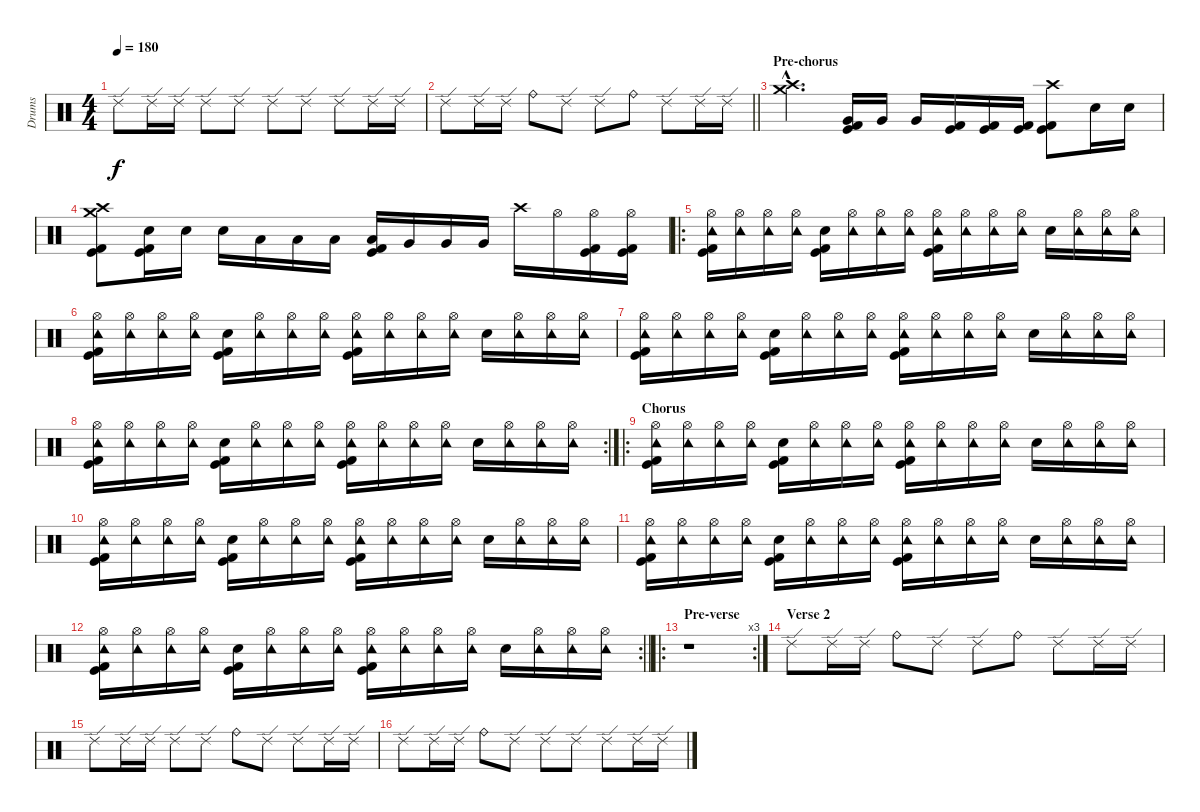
\track ("Drums" "Drums") {instrument percussion}
\staff {score}
\articulation defaults
\ts (4 4)
\tempo 180
\clef neutral
\ks c "Ride (edge) 2".8{dy f} "Ride (edge) 2".16 "Ride (edge) 2".16 "Ride (edge) 2".8 "Ride (edge) 2".8 "Ride (edge) 2".8 "Ride (edge) 2".8 "Ride (edge) 2".8 "Ride (edge) 2".16 "Ride (edge) 2".16
|
\barLineRight lightlight "Ride (edge) 2".8 "Ride (edge) 2".16 "Ride (edge) 2".16 "Ride (bell)".8 "Ride (edge) 2".8 "Ride (edge) 2".8 "Ride (bell)".8 "Ride (edge) 2".8 "Ride (edge) 2".16 "Ride (edge) 2".16
|
\section ("" "Pre-chorus")
("Crash medium (hit)"{hac} "Crash high (hit)"{hac}).4{d} ("Very Low Tom (hit)" "Kick (hit)" "Kick (hit) 2").16 "Very Low Tom (hit)".16 "Very Low Tom (hit)".16 ("Kick (hit)" "Kick (hit) 2").16 ("Kick (hit)" "Kick (hit) 2").16 ("Kick (hit)" "Kick (hit) 2").16 ("Crash high (hit)" "Kick (hit)" "Kick (hit) 2").8 "Electric Snare (hit)".16 "Electric Snare (hit)".16 |
("Crash medium (hit)" "Crash high (hit)" "Kick (hit) 2" "Kick (hit)").8 ("Electric Snare (hit)" "Kick (hit) 2" "Kick (hit)").16 "Electric Snare (hit)".16 "Electric Snare (hit)".16 "Low Tom (hit)".16 "Low Tom (hit)".16 "Low Tom (hit)".16 ("Low Tom (hit)" "Kick (hit) 2" "Kick (hit)").16 "Very Low Tom (hit)".16 "Very Low Tom (hit)".16 "Very Low Tom (hit)".16 "Crash high (hit)".16 "Hi-Hat (open)".16 ("Hi-Hat (open)" "Kick (hit) 2" "Kick (hit)").16 ("Hi-Hat (open)" "Kick (hit) 2" "Kick (hit)").16 |
\ro
("Hi-Hat (open)" "Tambourine (hit)" "Kick (hit) 2" "Kick (hit)").16 ("Hi-Hat (open)" "Tambourine (hit)").16 ("Hi-Hat (open)" "Tambourine (hit)").16 ("Hi-Hat (open)" "Tambourine (hit)").16 ("Electric Snare (hit)" "Kick (hit) 2" "Kick (hit)").16 ("Hi-Hat (open)" "Tambourine (hit)").16 ("Hi-Hat (open)" "Tambourine (hit)").16 ("Hi-Hat (open)" "Tambourine (hit)").16 ("Hi-Hat (open)" "Tambourine (hit)" "Kick (hit) 2" "Kick (hit)").16 ("Hi-Hat (open)" "Tambourine (hit)").16 ("Hi-Hat (open)" "Tambourine (hit)").16 ("Hi-Hat (open)" "Tambourine (hit)").16 "Electric Snare (hit)".16 ("Hi-Hat (open)" "Tambourine (hit)").16 ("Hi-Hat (open)" "Tambourine (hit)").16 ("Hi-Hat (open)" "Tambourine (hit)").16 |
("Hi-Hat (open)" "Tambourine (hit)" "Kick (hit) 2" "Kick (hit)").16 ("Hi-Hat (open)" "Tambourine (hit)").16 ("Hi-Hat (open)" "Tambourine (hit)").16 ("Hi-Hat (open)" "Tambourine (hit)").16 ("Electric Snare (hit)" "Kick (hit) 2" "Kick (hit)").16 ("Hi-Hat (open)" "Tambourine (hit)").16 ("Hi-Hat (open)" "Tambourine (hit)").16 ("Hi-Hat (open)" "Tambourine (hit)").16 ("Hi-Hat (open)" "Tambourine (hit)" "Kick (hit) 2" "Kick (hit)").16 ("Hi-Hat (open)" "Tambourine (hit)").16 ("Hi-Hat (open)" "Tambourine (hit)").16 ("Hi-Hat (open)" "Tambourine (hit)").16 "Electric Snare (hit)".16 ("Hi-Hat (open)" "Tambourine (hit)").16 ("Hi-Hat (open)" "Tambourine (hit)").16 ("Hi-Hat (open)" "Tambourine (hit)").16 |
("Hi-Hat (open)" "Tambourine (hit)" "Kick (hit) 2" "Kick (hit)").16 ("Hi-Hat (open)" "Tambourine (hit)").16 ("Hi-Hat (open)" "Tambourine (hit)").16 ("Hi-Hat (open)" "Tambourine (hit)").16 ("Electric Snare (hit)" "Kick (hit) 2" "Kick (hit)").16 ("Hi-Hat (open)" "Tambourine (hit)").16 ("Hi-Hat (open)" "Tambourine (hit)").16 ("Hi-Hat (open)" "Tambourine (hit)").16 ("Hi-Hat (open)" "Tambourine (hit)" "Kick (hit) 2" "Kick (hit)").16 ("Hi-Hat (open)" "Tambourine (hit)").16 ("Hi-Hat (open)" "Tambourine (hit)").16 ("Hi-Hat (open)" "Tambourine (hit)").16 "Electric Snare (hit)".16 ("Hi-Hat (open)" "Tambourine (hit)").16 ("Hi-Hat (open)" "Tambourine (hit)").16 ("Hi-Hat (open)" "Tambourine (hit)").16 |
\rc 2
("Hi-Hat (open)" "Tambourine (hit)" "Kick (hit) 2" "Kick (hit)").16 ("Hi-Hat (open)" "Tambourine (hit)").16 ("Hi-Hat (open)" "Tambourine (hit)").16 ("Hi-Hat (open)" "Tambourine (hit)").16 ("Electric Snare (hit)" "Kick (hit) 2" "Kick (hit)").16 ("Hi-Hat (open)" "Tambourine (hit)").16 ("Hi-Hat (open)" "Tambourine (hit)").16 ("Hi-Hat (open)" "Tambourine (hit)").16 ("Hi-Hat (open)" "Tambourine (hit)" "Kick (hit) 2" "Kick (hit)").16 ("Hi-Hat (open)" "Tambourine (hit)").16 ("Hi-Hat (open)" "Tambourine (hit)").16 ("Hi-Hat (open)" "Tambourine (hit)").16 "Electric Snare (hit)".16 ("Hi-Hat (open)" "Tambourine (hit)").16 ("Hi-Hat (open)" "Tambourine (hit)").16 ("Hi-Hat (open)" "Tambourine (hit)").16 |
\ro
\section ("" "Chorus")
("Hi-Hat (open)" "Tambourine (hit)" "Kick (hit) 2" "Kick (hit)").16 ("Hi-Hat (open)" "Tambourine (hit)").16 ("Hi-Hat (open)" "Tambourine (hit)").16 ("Hi-Hat (open)" "Tambourine (hit)").16 ("Electric Snare (hit)" "Kick (hit) 2" "Kick (hit)").16 ("Hi-Hat (open)" "Tambourine (hit)").16 ("Hi-Hat (open)" "Tambourine (hit)").16 ("Hi-Hat (open)" "Tambourine (hit)").16 ("Hi-Hat (open)" "Tambourine (hit)" "Kick (hit) 2" "Kick (hit)").16 ("Hi-Hat (open)" "Tambourine (hit)").16 ("Hi-Hat (open)" "Tambourine (hit)").16 ("Hi-Hat (open)" "Tambourine (hit)").16 "Electric Snare (hit)".16 ("Hi-Hat (open)" "Tambourine (hit)").16 ("Hi-Hat (open)" "Tambourine (hit)").16 ("Hi-Hat (open)" "Tambourine (hit)").16 |
("Hi-Hat (open)" "Tambourine (hit)" "Kick (hit) 2" "Kick (hit)").16 ("Hi-Hat (open)" "Tambourine (hit)").16 ("Hi-Hat (open)" "Tambourine (hit)").16 ("Hi-Hat (open)" "Tambourine (hit)").16 ("Electric Snare (hit)" "Kick (hit) 2" "Kick (hit)").16 ("Hi-Hat (open)" "Tambourine (hit)").16 ("Hi-Hat (open)" "Tambourine (hit)").16 ("Hi-Hat (open)" "Tambourine (hit)").16 ("Hi-Hat (open)" "Tambourine (hit)" "Kick (hit) 2" "Kick (hit)").16 ("Hi-Hat (open)" "Tambourine (hit)").16 ("Hi-Hat (open)" "Tambourine (hit)").16 ("Hi-Hat (open)" "Tambourine (hit)").16 "Electric Snare (hit)".16 ("Hi-Hat (open)" "Tambourine (hit)").16 ("Hi-Hat (open)" "Tambourine (hit)").16 ("Hi-Hat (open)" "Tambourine (hit)").16 |
("Hi-Hat (open)" "Tambourine (hit)" "Kick (hit) 2" "Kick (hit)").16 ("Hi-Hat (open)" "Tambourine (hit)").16 ("Hi-Hat (open)" "Tambourine (hit)").16 ("Hi-Hat (open)" "Tambourine (hit)").16 ("Electric Snare (hit)" "Kick (hit) 2" "Kick (hit)").16 ("Hi-Hat (open)" "Tambourine (hit)").16 ("Hi-Hat (open)" "Tambourine (hit)").16 ("Hi-Hat (open)" "Tambourine (hit)").16 ("Hi-Hat (open)" "Tambourine (hit)" "Kick (hit) 2" "Kick (hit)").16 ("Hi-Hat (open)" "Tambourine (hit)").16 ("Hi-Hat (open)" "Tambourine (hit)").16 ("Hi-Hat (open)" "Tambourine (hit)").16 "Electric Snare (hit)".16 ("Hi-Hat (open)" "Tambourine (hit)").16 ("Hi-Hat (open)" "Tambourine (hit)").16 ("Hi-Hat (open)" "Tambourine (hit)").16 |
\rc 2
\barLineRight lightlight
("Hi-Hat (open)" "Tambourine (hit)" "Kick (hit) 2" "Kick (hit)").16 ("Hi-Hat (open)" "Tambourine (hit)").16 ("Hi-Hat (open)" "Tambourine (hit)").16 ("Hi-Hat (open)" "Tambourine (hit)").16 ("Electric Snare (hit)" "Kick (hit) 2" "Kick (hit)").16 ("Hi-Hat (open)" "Tambourine (hit)").16 ("Hi-Hat (open)" "Tambourine (hit)").16 ("Hi-Hat (open)" "Tambourine (hit)").16 ("Hi-Hat (open)" "Tambourine (hit)" "Kick (hit) 2" "Kick (hit)").16 ("Hi-Hat (open)" "Tambourine (hit)").16 ("Hi-Hat (open)" "Tambourine (hit)").16 ("Hi-Hat (open)" "Tambourine (hit)").16 "Electric Snare (hit)".16 ("Hi-Hat (open)" "Tambourine (hit)").16 ("Hi-Hat (open)" "Tambourine (hit)").16 ("Hi-Hat (open)" "Tambourine (hit)").16 |
\ro
\rc 3
\section ("" "Pre-verse")
r.1 |
\section ("" "Verse 2")
"Ride (edge) 2".8 "Ride (edge) 2".16 "Ride (edge) 2".16 "Ride (bell)".8 "Ride (edge) 2".8 "Ride (edge) 2".8 "Ride (bell)".8 "Ride (edge) 2".8 "Ride (edge) 2".16 "Ride (edge) 2".16 |
"Ride (edge) 2".8 "Ride (edge) 2".16 "Ride (edge) 2".16 "Ride (edge) 2".8 "Ride (edge) 2".8 "Ride (bell)".8 "Ride (edge) 2".8 "Ride (edge) 2".8 "Ride (edge) 2".16 "Ride (edge) 2".16 |
"Ride (edge) 2".8 "Ride (edge) 2".16 "Ride (edge) 2".16 "Ride (bell)".8 "Ride (edge) 2".8 "Ride (edge) 2".8 "Ride (edge) 2".8 "Ride (edge) 2".8 "Ride (edge) 2".16 "Ride (edge) 2".16
